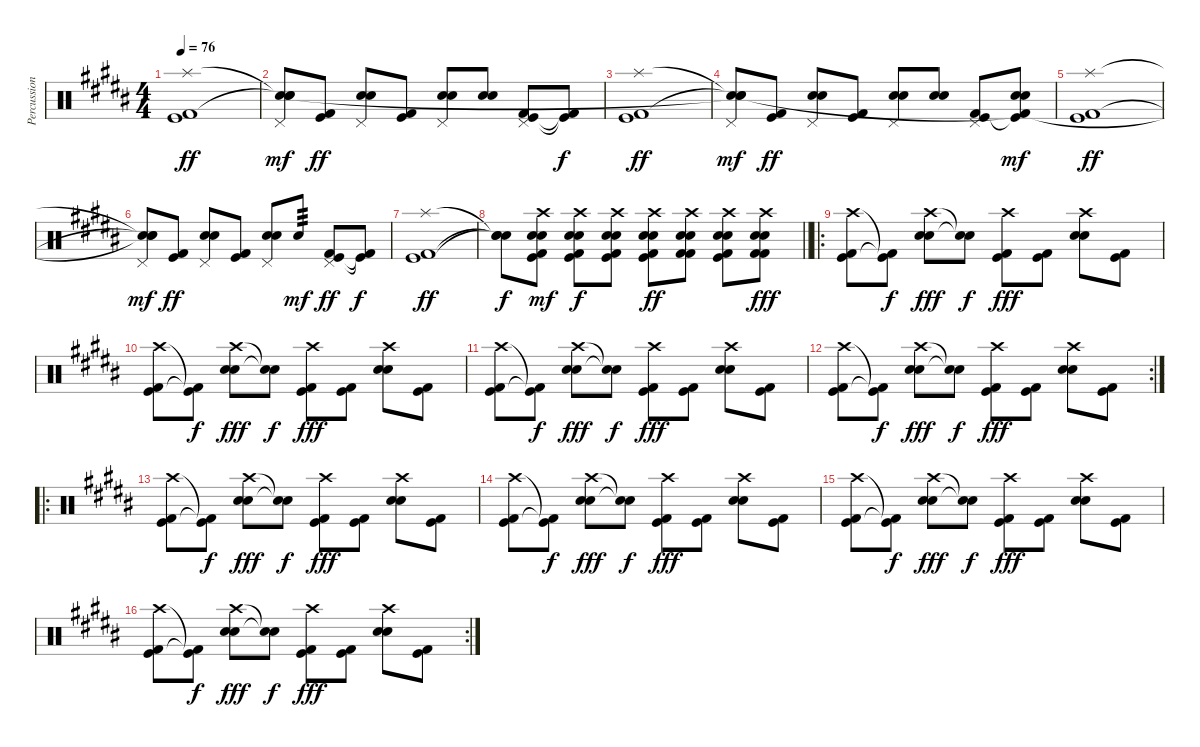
\track ("Percussion" "Percussion") {instrument percussion}
\staff {score}
\articulation defaults
\ts (4 4)
\tempo 76
\clef neutral
\ks b
("Splash (hit)" "Kick (hit)" "Kick (hit) 2").1{dy ff} |
("Snare (hit)"{t} "Pedal Hi-Hat (hit)" "Snare (hit)"{t} "Snare (hit)"{t}).8{dy mf} ("Kick (hit)" "Kick (hit) 2").8{dy ff} ("Pedal Hi-Hat (hit)" "Snare (hit) 2" "Snare (hit) 2").8 ("Kick (hit) 2" "Kick (hit)").8 ("Pedal Hi-Hat (hit)" "Snare (hit) 2" "Snare (hit) 2").8 ("Snare (hit) 2" "Snare (hit) 2").8 ("Pedal Hi-Hat (hit)" "Kick (hit)" "Kick (hit) 2").8 ("Kick (hit)"{t} "Kick (hit) 2"{t}).8{dy f} |
("Splash (hit)" "Kick (hit)" "Kick (hit) 2").1{dy ff} |
("Snare (hit)"{t} "Pedal Hi-Hat (hit)" "Snare (hit)"{t} "Snare (hit)"{t}).8{dy mf} ("Kick (hit)" "Kick (hit) 2").8{dy ff} ("Pedal Hi-Hat (hit)" "Snare (hit) 2" "Snare (hit) 2").8 ("Kick (hit) 2" "Kick (hit)").8 ("Pedal Hi-Hat (hit)" "Snare (hit) 2" "Snare (hit) 2").8 ("Snare (hit) 2" "Snare (hit) 2").8 ("Pedal Hi-Hat (hit)" "Kick (hit)" "Kick (hit) 2").8 ("Snare (hit) 2" "Snare (hit) 2" "Kick (hit)"{t} "Kick (hit) 2"{t}).8{dy mf} |
("Splash (hit)" "Kick (hit)" "Kick (hit) 2").1{dy ff} |
("Snare (hit)"{t} "Pedal Hi-Hat (hit)" "Snare (hit)"{t} "Snare (hit)"{t}).8{dy mf} ("Kick (hit)" "Kick (hit) 2").8{dy ff} ("Pedal Hi-Hat (hit)" "Snare (hit) 2" "Snare (hit) 2").8 ("Kick (hit) 2" "Kick (hit)").8 ("Pedal Hi-Hat (hit)" "Snare (hit) 2" "Snare (hit) 2").8 "Snare (hit) 2".8{tp 3 dy mf} ("Pedal Hi-Hat (hit)" "Kick (hit)" "Kick (hit) 2").8{dy ff} ("Kick (hit)"{t} "Kick (hit) 2"{t}).8{dy f} |
("Splash (hit)" "Kick (hit)" "Kick (hit) 2").1{dy ff} |
\barLineRight lightlight
("Snare (hit)"{t} "Snare (hit)"{t} "Snare (hit)"{t}).8{dy f} ("Crash high (hit)" "Snare (hit) 2" "Snare (hit) 2" "Kick (hit)" "Kick (hit) 2").8{dy mf} ("Crash high (hit)" "Snare (hit) 2" "Snare (hit) 2" "Kick (hit)" "Kick (hit) 2").8{dy f} ("Crash high (hit)" "Snare (hit) 2" "Snare (hit) 2" "Kick (hit) 2" "Kick (hit)").8 ("Crash high (hit)" "Snare (hit) 2" "Snare (hit) 2" "Kick (hit)" "Kick (hit) 2").8{dy ff} ("Crash high (hit)" "Snare (hit) 2" "Snare (hit) 2" "Kick (hit) 2" "Kick (hit) 2").8 ("Crash high (hit)" "Snare (hit) 2" "Snare (hit) 2" "Kick (hit)" "Kick (hit) 2").8 ("Crash high (hit)" "Snare (hit) 2" "Snare (hit) 2" "Kick (hit) 2" "Kick (hit) 2").8{dy fff} |
\ro
("Crash high (hit)" "Kick (hit)" "Kick (hit) 2").8 ("Kick (hit)"{t} "Kick (hit) 2"{t}).8{dy f} ("Crash high (hit)" "Snare (hit) 2" "Snare (hit) 2").8{dy fff} ("Snare (hit) 2"{t} "Snare (hit) 2"{t}).8{dy f} ("Crash high (hit)" "Kick (hit)" "Kick (hit) 2").8{dy fff} ("Kick (hit)" "Kick (hit) 2").8 ("Crash high (hit)" "Snare (hit) 2" "Snare (hit) 2").8 ("Kick (hit)" "Kick (hit) 2").8 |
("Crash high (hit)" "Kick (hit)" "Kick (hit) 2").8 ("Kick (hit)"{t} "Kick (hit) 2"{t}).8{dy f} ("Crash high (hit)" "Snare (hit) 2" "Snare (hit) 2").8{dy fff} ("Snare (hit) 2"{t} "Snare (hit) 2"{t}).8{dy f} ("Crash high (hit)" "Kick (hit)" "Kick (hit) 2").8{dy fff} ("Kick (hit)" "Kick (hit) 2").8 ("Crash high (hit)" "Snare (hit) 2" "Snare (hit) 2").8 ("Kick (hit)" "Kick (hit) 2").8 |
("Crash high (hit)" "Kick (hit)" "Kick (hit) 2").8 ("Kick (hit)"{t} "Kick (hit) 2"{t}).8{dy f} ("Crash high (hit)" "Snare (hit) 2" "Snare (hit) 2").8{dy fff} ("Snare (hit) 2"{t} "Snare (hit) 2"{t}).8{dy f} ("Crash high (hit)" "Kick (hit)" "Kick (hit) 2").8{dy fff} ("Kick (hit)" "Kick (hit) 2").8 ("Crash high (hit)" "Snare (hit) 2" "Snare (hit) 2").8 ("Kick (hit)" "Kick (hit) 2").8 |
\rc 2
("Crash high (hit)" "Kick (hit)" "Kick (hit) 2").8 ("Kick (hit)"{t} "Kick (hit) 2"{t}).8{dy f} ("Crash high (hit)" "Snare (hit) 2" "Snare (hit) 2").8{dy fff} ("Snare (hit) 2"{t} "Snare (hit) 2"{t}).8{dy f} ("Crash high (hit)" "Kick (hit)" "Kick (hit) 2").8{dy fff} ("Kick (hit)" "Kick (hit) 2").8 ("Crash high (hit)" "Snare (hit) 2" "Snare (hit) 2").8 ("Kick (hit)" "Kick (hit) 2").8 |
\ro
("Crash high (hit)" "Kick (hit)" "Kick (hit) 2").8 ("Kick (hit)"{t} "Kick (hit) 2"{t}).8{dy f} ("Crash high (hit)" "Snare (hit) 2" "Snare (hit) 2").8{dy fff} ("Snare (hit) 2"{t} "Snare (hit) 2"{t}).8{dy f} ("Crash high (hit)" "Kick (hit)" "Kick (hit) 2").8{dy fff} ("Kick (hit)" "Kick (hit) 2").8 ("Crash high (hit)" "Snare (hit) 2" "Snare (hit) 2").8 ("Kick (hit)" "Kick (hit) 2").8 |
("Crash high (hit)" "Kick (hit)" "Kick (hit) 2").8 ("Kick (hit)"{t} "Kick (hit) 2"{t}).8{dy f} ("Crash high (hit)" "Snare (hit) 2" "Snare (hit) 2").8{dy fff} ("Snare (hit) 2"{t} "Snare (hit) 2"{t}).8{dy f} ("Crash high (hit)" "Kick (hit)" "Kick (hit) 2").8{dy fff} ("Kick (hit)" "Kick (hit) 2").8 ("Crash high (hit)" "Snare (hit) 2" "Snare (hit) 2").8 ("Kick (hit)" "Kick (hit) 2").8 |
("Crash high (hit)" "Kick (hit)" "Kick (hit) 2").8 ("Kick (hit)"{t} "Kick (hit) 2"{t}).8{dy f} ("Crash high (hit)" "Snare (hit) 2" "Snare (hit) 2").8{dy fff} ("Snare (hit) 2"{t} "Snare (hit) 2"{t}).8{dy f} ("Crash high (hit)" "Kick (hit)" "Kick (hit) 2").8{dy fff} ("Kick (hit)" "Kick (hit) 2").8 ("Crash high (hit)" "Snare (hit) 2" "Snare (hit) 2").8 ("Kick (hit)" "Kick (hit) 2").8 |
\rc 2
("Crash high (hit)" "Kick (hit)" "Kick (hit) 2").8 ("Kick (hit)"{t} "Kick (hit) 2"{t}).8{dy f} ("Crash high (hit)" "Snare (hit) 2" "Snare (hit) 2").8{dy fff} ("Snare (hit) 2"{t} "Snare (hit) 2"{t}).8{dy f} ("Crash high (hit)" "Kick (hit)" "Kick (hit) 2").8{dy fff} ("Kick (hit)" "Kick (hit) 2").8 ("Crash high (hit)" "Snare (hit) 2" "Snare (hit) 2").8 ("Kick (hit)" "Kick (hit) 2").8
